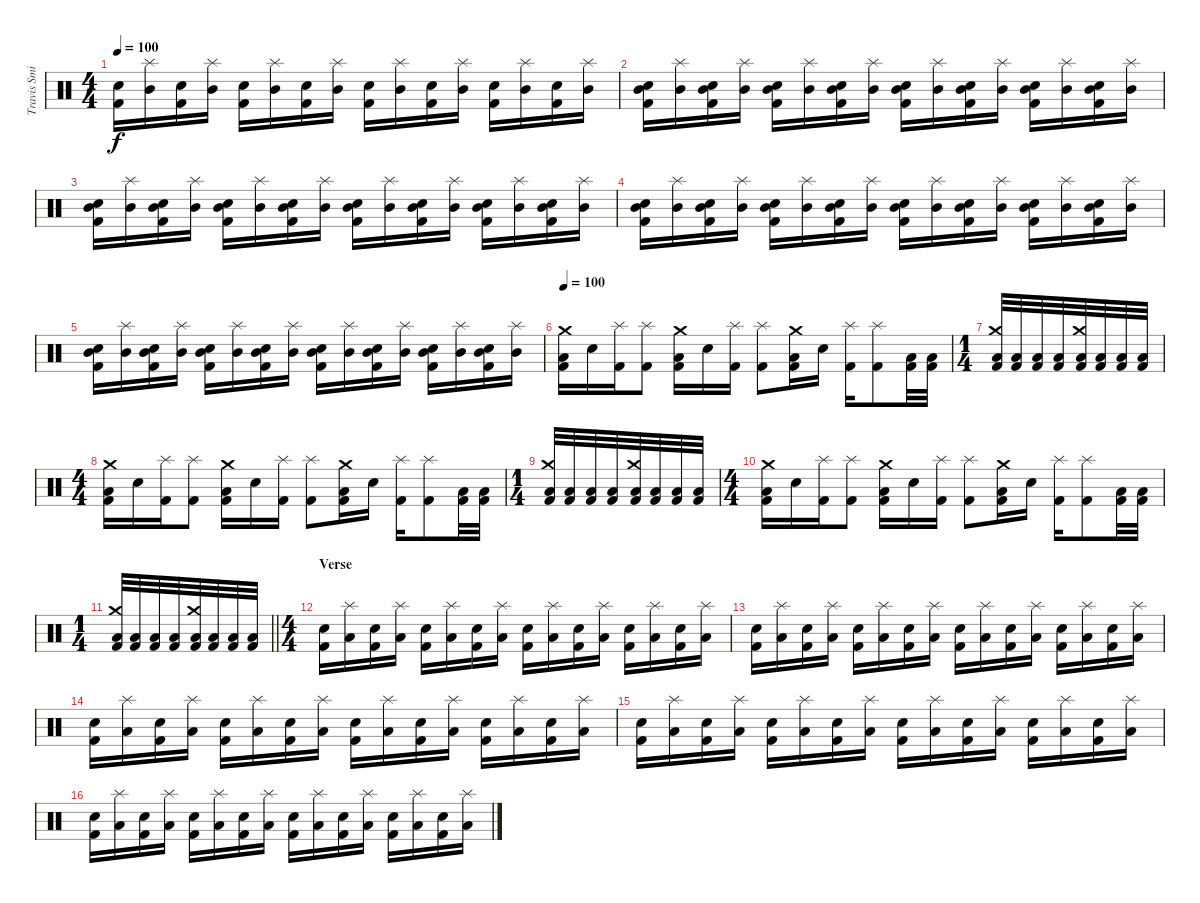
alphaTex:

\track ("Travis Smith" "Travis Smi") {instrument percussion}
\staff {score}
\articulation defaults
\ts (4 4)
\tempo 100
\clef neutral
\ks c
("Snare (hit) 2" "Kick (hit) 2").16{dy f} ("Splash (hit)" "Mid Tom (hit)").16 ("Snare (hit) 2" "Kick (hit) 2").16 ("Splash (hit)" "Mid Tom (hit)").16 ("Snare (hit) 2" "Kick (hit) 2").16 ("Splash (hit)" "Mid Tom (hit)").16 ("Snare (hit) 2" "Kick (hit) 2").16 ("Splash (hit)" "Mid Tom (hit)").16 ("Snare (hit) 2" "Kick (hit) 2").16 ("Splash (hit)" "Mid Tom (hit)").16 ("Snare (hit) 2" "Kick (hit) 2").16 ("Splash (hit)" "Mid Tom (hit)").16 ("Snare (hit) 2" "Kick (hit) 2").16 ("Splash (hit)" "Mid Tom (hit)").16 ("Snare (hit) 2" "Kick (hit) 2").16 ("Splash (hit)" "Mid Tom (hit)").16 |
("Snare (hit) 2" "Mid Tom (hit)" "Kick (hit) 2").16 ("Splash (hit)" "Mid Tom (hit)").16 ("Snare (hit) 2" "Mid Tom (hit)" "Kick (hit) 2").16 ("Splash (hit)" "Mid Tom (hit)").16 ("Snare (hit) 2" "Mid Tom (hit)" "Kick (hit) 2").16 ("Splash (hit)" "Mid Tom (hit)").16 ("Snare (hit) 2" "Mid Tom (hit)" "Kick (hit) 2").16 ("Splash (hit)" "Mid Tom (hit)").16 ("Snare (hit) 2" "Mid Tom (hit)" "Kick (hit) 2").16 ("Splash (hit)" "Mid Tom (hit)").16 ("Snare (hit) 2" "Mid Tom (hit)" "Kick (hit) 2").16 ("Splash (hit)" "Mid Tom (hit)").16 ("Snare (hit) 2" "Mid Tom (hit)" "Kick (hit) 2").16 ("Splash (hit)" "Mid Tom (hit)").16 ("Snare (hit) 2" "Mid Tom (hit)" "Kick (hit) 2").16 ("Splash (hit)" "Mid Tom (hit)").16 |
("Snare (hit) 2" "Mid Tom (hit)" "Kick (hit) 2").16 ("Splash (hit)" "Mid Tom (hit)").16 ("Snare (hit) 2" "Mid Tom (hit)" "Kick (hit) 2").16 ("Splash (hit)" "Mid Tom (hit)").16 ("Snare (hit) 2" "Mid Tom (hit)" "Kick (hit) 2").16 ("Splash (hit)" "Mid Tom (hit)").16 ("Snare (hit) 2" "Mid Tom (hit)" "Kick (hit) 2").16 ("Splash (hit)" "Mid Tom (hit)").16 ("Snare (hit) 2" "Mid Tom (hit)" "Kick (hit) 2").16 ("Splash (hit)" "Mid Tom (hit)").16 ("Snare (hit) 2" "Mid Tom (hit)" "Kick (hit) 2").16 ("Splash (hit)" "Mid Tom (hit)").16 ("Snare (hit) 2" "Mid Tom (hit)" "Kick (hit) 2").16 ("Splash (hit)" "Mid Tom (hit)").16 ("Snare (hit) 2" "Mid Tom (hit)" "Kick (hit) 2").16 ("Splash (hit)" "Mid Tom (hit)").16 |
("Snare (hit) 2" "Mid Tom (hit)" "Kick (hit) 2").16 ("Splash (hit)" "Mid Tom (hit)").16 ("Snare (hit) 2" "Mid Tom (hit)" "Kick (hit) 2").16 ("Splash (hit)" "Mid Tom (hit)").16 ("Snare (hit) 2" "Mid Tom (hit)" "Kick (hit) 2").16 ("Splash (hit)" "Mid Tom (hit)").16 ("Snare (hit) 2" "Mid Tom (hit)" "Kick (hit) 2").16 ("Splash (hit)" "Mid Tom (hit)").16 ("Snare (hit) 2" "Mid Tom (hit)" "Kick (hit) 2").16 ("Splash (hit)" "Mid Tom (hit)").16 ("Snare (hit) 2" "Mid Tom (hit)" "Kick (hit) 2").16 ("Splash (hit)" "Mid Tom (hit)").16 ("Snare (hit) 2" "Mid Tom (hit)" "Kick (hit) 2").16 ("Splash (hit)" "Mid Tom (hit)").16 ("Snare (hit) 2" "Mid Tom (hit)" "Kick (hit) 2").16 ("Splash (hit)" "Mid Tom (hit)").16 |
("Snare (hit) 2" "Mid Tom (hit)" "Kick (hit) 2").16 ("Splash (hit)" "Mid Tom (hit)").16 ("Snare (hit) 2" "Mid Tom (hit)" "Kick (hit) 2").16 ("Splash (hit)" "Mid Tom (hit)").16 ("Snare (hit) 2" "Mid Tom (hit)" "Kick (hit) 2").16 ("Splash (hit)" "Mid Tom (hit)").16 ("Snare (hit) 2" "Mid Tom (hit)" "Kick (hit) 2").16 ("Splash (hit)" "Mid Tom (hit)").16 ("Snare (hit) 2" "Mid Tom (hit)" "Kick (hit) 2").16 ("Splash (hit)" "Mid Tom (hit)").16 ("Snare (hit) 2" "Mid Tom (hit)" "Kick (hit) 2").16 ("Splash (hit)" "Mid Tom (hit)").16 ("Snare (hit) 2" "Mid Tom (hit)" "Kick (hit) 2").16 ("Splash (hit)" "Mid Tom (hit)").16 ("Snare (hit) 2" "Mid Tom (hit)" "Kick (hit) 2").16 ("Splash (hit)" "Mid Tom (hit)").16 |
\tempo 100
("Crash medium (hit)" "Low Floor Tom (hit)" "Kick (hit) 2").16 "Snare (hit) 2".16 ("Splash (hit)" "Kick (hit) 2").16 ("Splash (hit)" "Kick (hit) 2").8 ("Crash medium (hit)" "Low Floor Tom (hit)" "Kick (hit) 2").16 "Snare (hit) 2".16 ("Splash (hit)" "Kick (hit) 2").16 ("Splash (hit)" "Kick (hit) 2").8 ("Crash medium (hit)" "Low Floor Tom (hit)" "Kick (hit) 2").16 "Snare (hit) 2".16 ("Splash (hit)" "Kick (hit) 2").16 ("Splash (hit)" "Kick (hit) 2").8 ("Low Tom (hit)" "Kick (hit) 2").32 ("Low Tom (hit)" "Kick (hit) 2").32 |
\ts (1 4)
("Crash medium (hit)" "Low Tom (hit)" "Kick (hit) 2").32 ("Low Tom (hit)" "Kick (hit) 2").32 ("Low Tom (hit)" "Kick (hit) 2").32 ("Low Tom (hit)" "Kick (hit) 2").32 ("Crash medium (hit)" "Low Tom (hit)" "Kick (hit) 2").32 ("Low Tom (hit)" "Kick (hit) 2").32 ("Low Tom (hit)" "Kick (hit) 2").32 ("Low Tom (hit)" "Kick (hit) 2").32 |
\ts (4 4)
("Crash medium (hit)" "Low Floor Tom (hit)" "Kick (hit) 2").16 "Snare (hit) 2".16 ("Splash (hit)" "Kick (hit) 2").16 ("Splash (hit)" "Kick (hit) 2").8 ("Crash medium (hit)" "Low Floor Tom (hit)" "Kick (hit) 2").16 "Snare (hit) 2".16 ("Splash (hit)" "Kick (hit) 2").16 ("Splash (hit)" "Kick (hit) 2").8 ("Crash medium (hit)" "Low Floor Tom (hit)" "Kick (hit) 2").16 "Snare (hit) 2".16 ("Splash (hit)" "Kick (hit) 2").16 ("Splash (hit)" "Kick (hit) 2").8 ("Low Tom (hit)" "Kick (hit) 2").32 ("Low Tom (hit)" "Kick (hit) 2").32 |
\ts (1 4)
("Crash medium (hit)" "Low Tom (hit)" "Kick (hit) 2").32 ("Low Tom (hit)" "Kick (hit) 2").32 ("Low Tom (hit)" "Kick (hit) 2").32 ("Low Tom (hit)" "Kick (hit) 2").32 ("Crash medium (hit)" "Low Tom (hit)" "Kick (hit) 2").32 ("Low Tom (hit)" "Kick (hit) 2").32 ("Low Tom (hit)" "Kick (hit) 2").32 ("Low Tom (hit)" "Kick (hit) 2").32 |
\ts (4 4)
("Crash medium (hit)" "Low Floor Tom (hit)" "Kick (hit) 2").16 "Snare (hit) 2".16 ("Splash (hit)" "Kick (hit) 2").16 ("Splash (hit)" "Kick (hit) 2").8 ("Crash medium (hit)" "Low Floor Tom (hit)" "Kick (hit) 2").16 "Snare (hit) 2".16 ("Splash (hit)" "Kick (hit) 2").16 ("Splash (hit)" "Kick (hit) 2").8 ("Crash medium (hit)" "Low Floor Tom (hit)" "Kick (hit) 2").16 "Snare (hit) 2".16 ("Splash (hit)" "Kick (hit) 2").16 ("Splash (hit)" "Kick (hit) 2").8 ("Low Tom (hit)" "Kick (hit) 2").32 ("Low Tom (hit)" "Kick (hit) 2").32 |
\ts (1 4)
\barLineRight lightlight
("Crash medium (hit)" "Low Tom (hit)" "Kick (hit) 2").32 ("Low Tom (hit)" "Kick (hit) 2").32 ("Low Tom (hit)" "Kick (hit) 2").32 ("Low Tom (hit)" "Kick (hit) 2").32 ("Crash medium (hit)" "Low Tom (hit)" "Kick (hit) 2").32 ("Low Tom (hit)" "Kick (hit) 2").32 ("Low Tom (hit)" "Kick (hit) 2").32 ("Low Tom (hit)" "Kick (hit) 2").32 |
\ts (4 4)
\section ("" "Verse")
("Snare (hit) 2" "Kick (hit) 2").16 ("Splash (hit)" "Low Floor Tom (hit)").16 ("Snare (hit) 2" "Kick (hit) 2").16 ("Splash (hit)" "Low Floor Tom (hit)").16 ("Snare (hit) 2" "Kick (hit) 2").16 ("Splash (hit)" "Low Floor Tom (hit)").16 ("Snare (hit) 2" "Kick (hit) 2").16 ("Splash (hit)" "Low Floor Tom (hit)").16 ("Snare (hit) 2" "Kick (hit) 2").16 ("Splash (hit)" "Low Floor Tom (hit)").16 ("Snare (hit) 2" "Kick (hit) 2").16 ("Splash (hit)" "Low Floor Tom (hit)").16 ("Snare (hit) 2" "Kick (hit) 2").16 ("Splash (hit)" "Low Floor Tom (hit)").16 ("Snare (hit) 2" "Kick (hit) 2").16 ("Splash (hit)" "Low Floor Tom (hit)").16 |
("Snare (hit) 2" "Kick (hit) 2").16 ("Splash (hit)" "Low Floor Tom (hit)").16 ("Snare (hit) 2" "Kick (hit) 2").16 ("Splash (hit)" "Low Floor Tom (hit)").16 ("Snare (hit) 2" "Kick (hit) 2").16 ("Splash (hit)" "Low Floor Tom (hit)").16 ("Snare (hit) 2" "Kick (hit) 2").16 ("Splash (hit)" "Low Floor Tom (hit)").16 ("Snare (hit) 2" "Kick (hit) 2").16 ("Splash (hit)" "Low Floor Tom (hit)").16 ("Snare (hit) 2" "Kick (hit) 2").16 ("Splash (hit)" "Low Floor Tom (hit)").16 ("Snare (hit) 2" "Kick (hit) 2").16 ("Splash (hit)" "Low Floor Tom (hit)").16 ("Snare (hit) 2" "Kick (hit) 2").16 ("Splash (hit)" "Low Floor Tom (hit)").16 |
("Snare (hit) 2" "Kick (hit) 2").16 ("Splash (hit)" "Low Floor Tom (hit)").16 ("Snare (hit) 2" "Kick (hit) 2").16 ("Splash (hit)" "Low Floor Tom (hit)").16 ("Snare (hit) 2" "Kick (hit) 2").16 ("Splash (hit)" "Low Floor Tom (hit)").16 ("Snare (hit) 2" "Kick (hit) 2").16 ("Splash (hit)" "Low Floor Tom (hit)").16 ("Snare (hit) 2" "Kick (hit) 2").16 ("Splash (hit)" "Low Floor Tom (hit)").16 ("Snare (hit) 2" "Kick (hit) 2").16 ("Splash (hit)" "Low Floor Tom (hit)").16 ("Snare (hit) 2" "Kick (hit) 2").16 ("Splash (hit)" "Low Floor Tom (hit)").16 ("Snare (hit) 2" "Kick (hit) 2").16 ("Splash (hit)" "Low Floor Tom (hit)").16 |
("Snare (hit) 2" "Kick (hit) 2").16 ("Splash (hit)" "Low Floor Tom (hit)").16 ("Snare (hit) 2" "Kick (hit) 2").16 ("Splash (hit)" "Low Floor Tom (hit)").16 ("Snare (hit) 2" "Kick (hit) 2").16 ("Splash (hit)" "Low Floor Tom (hit)").16 ("Snare (hit) 2" "Kick (hit) 2").16 ("Splash (hit)" "Low Floor Tom (hit)").16 ("Snare (hit) 2" "Kick (hit) 2").16 ("Splash (hit)" "Low Floor Tom (hit)").16 ("Snare (hit) 2" "Kick (hit) 2").16 ("Splash (hit)" "Low Floor Tom (hit)").16 ("Snare (hit) 2" "Kick (hit) 2").16 ("Splash (hit)" "Low Floor Tom (hit)").16 ("Snare (hit) 2" "Kick (hit) 2").16 ("Splash (hit)" "Low Floor Tom (hit)").16 |
("Snare (hit) 2" "Kick (hit) 2").16 ("Splash (hit)" "Low Floor Tom (hit)").16 ("Snare (hit) 2" "Kick (hit) 2").16 ("Splash (hit)" "Low Floor Tom (hit)").16 ("Snare (hit) 2" "Kick (hit) 2").16 ("Splash (hit)" "Low Floor Tom (hit)").16 ("Snare (hit) 2" "Kick (hit) 2").16 ("Splash (hit)" "Low Floor Tom (hit)").16 ("Snare (hit) 2" "Kick (hit) 2").16 ("Splash (hit)" "Low Floor Tom (hit)").16 ("Snare (hit) 2" "Kick (hit) 2").16 ("Splash (hit)" "Low Floor Tom (hit)").16 ("Snare (hit) 2" "Kick (hit) 2").16 ("Splash (hit)" "Low Floor Tom (hit)").16 ("Snare (hit) 2" "Kick (hit) 2").16 ("Splash (hit)" "Low Floor Tom (hit)").16
